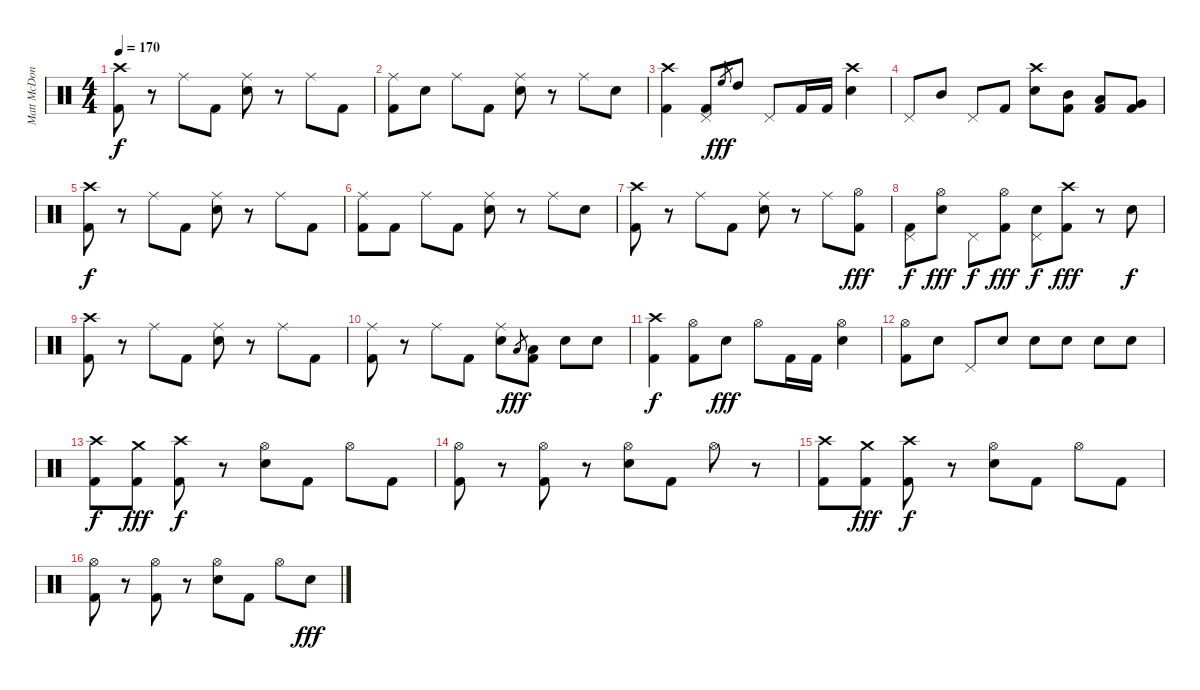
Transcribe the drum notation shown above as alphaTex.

\track ("Matt McDonough" "Matt McDon") {instrument percussion}
\staff {score}
\articulation defaults
\ts (4 4)
\tempo 170
\clef neutral
\ks c
("Crash high (hit)" "Kick (hit) 2").8{dy f} r.8 "Ride (middle)".8 "Kick (hit) 2".8 ("Ride (middle)" "Electric Snare (hit)").8 r.8 "Ride (middle)".8 "Kick (hit) 2".8 |
("Ride (middle)" "Kick (hit) 2").8 "Electric Snare (hit)".8 "Ride (middle)".8 "Kick (hit) 2".8 ("Ride (middle)" "Electric Snare (hit)").8 r.8 "Ride (middle)".8 "Electric Snare (hit)".8 |
("Crash high (hit)" "Kick (hit) 2").4 ("Pedal Hi-Hat (hit)" "Kick (hit) 2").8 "High Floor Tom (hit)".8{gr dy fff} "High Tom (hit)".8 "Pedal Hi-Hat (hit)".8 "Kick (hit) 2".16 "Kick (hit) 2".16 ("Crash high (hit)" "Electric Snare (hit)").4 |
"Pedal Hi-Hat (hit)".8 "Mid Tom (hit)".8 "Pedal Hi-Hat (hit)".8 "Kick (hit) 2".8 ("Crash high (hit)" "Electric Snare (hit)").8 ("Mid Tom (hit)" "Kick (hit) 2").8 ("Low Tom (hit)" "Kick (hit) 2").8 ("Very Low Tom (hit)" "Kick (hit) 2").8 |
("Crash high (hit)" "Kick (hit) 2").8{dy f} r.8 "Ride (middle)".8 "Kick (hit) 2".8 ("Ride (middle)" "Electric Snare (hit)").8 r.8 "Ride (middle)".8 "Kick (hit) 2".8 |
("Ride (middle)" "Kick (hit) 2").8 "Kick (hit) 2".8 "Ride (middle)".8 "Kick (hit) 2".8 ("Ride (middle)" "Electric Snare (hit)").8 r.8 "Ride (middle)".8 "Electric Snare (hit)".8 |
("Crash high (hit)" "Kick (hit) 2").8 r.8 "Ride (middle)".8 "Kick (hit) 2".8 ("Ride (middle)" "Electric Snare (hit)").8 r.8 "Ride (middle)".8 ("Hi-Hat (open)" "Kick (hit) 2").8{dy fff} |
("Pedal Hi-Hat (hit)" "Kick (hit) 2").8{dy f} ("Hi-Hat (open)" "Electric Snare (hit)").8{dy fff} "Pedal Hi-Hat (hit)".8{dy f} ("Hi-Hat (open)" "Kick (hit) 2").8{dy fff} ("Pedal Hi-Hat (hit)" "Electric Snare (hit)").8{dy f} ("Crash high (hit)" "Kick (hit) 2").8{dy fff} r.8 "Electric Snare (hit)".8{dy f} |
("Crash high (hit)" "Kick (hit) 2").8 r.8 "Ride (middle)".8 "Kick (hit) 2".8 ("Ride (middle)" "Electric Snare (hit)").8 r.8 "Ride (middle)".8 "Kick (hit) 2".8 |
("Ride (middle)" "Kick (hit) 2").8 r.8 "Ride (middle)".8 "Kick (hit) 2".8 ("Ride (middle)" "Electric Snare (hit)").8 "Low Tom (hit)".8{gr dy fff} ("Low Floor Tom (hit)" "Kick (hit) 2").8 "Electric Snare (hit)".8 "Electric Snare (hit)".8 |
("Crash high (hit)" "Kick (hit) 2").4{dy f} ("Hi-Hat (open)" "Kick (hit) 2").8 "Electric Snare (hit)".8{dy fff} "Hi-Hat (open)".8 "Kick (hit) 2".16 "Kick (hit) 2".16 ("Hi-Hat (open)" "Electric Snare (hit)").4 |
("Hi-Hat (open)" "Kick (hit) 2").8 "Electric Snare (hit)".8 "Pedal Hi-Hat (hit)".8 "Electric Snare (hit)".8 "Electric Snare (hit)".8 "Electric Snare (hit)".8 "Electric Snare (hit)".8 "Electric Snare (hit)".8 |
("Crash high (hit)" "Kick (hit) 2").8{dy f} ("Crash medium (hit)" "Kick (hit) 2").8{dy fff} ("Crash high (hit)" "Kick (hit) 2").8{dy f} r.8 ("Hi-Hat (open)" "Electric Snare (hit)").8 "Kick (hit) 2".8 "Hi-Hat (open)".8 "Kick (hit) 2".8 |
("Hi-Hat (open)" "Kick (hit) 2").8 r.8 ("Hi-Hat (open)" "Kick (hit) 2").8 r.8 ("Hi-Hat (open)" "Electric Snare (hit)").8 "Kick (hit) 2".8 "Hi-Hat (open)".8 r.8 |
("Crash high (hit)" "Kick (hit) 2").8 ("Crash medium (hit)" "Kick (hit) 2").8{dy fff} ("Crash high (hit)" "Kick (hit) 2").8{dy f} r.8 ("Hi-Hat (open)" "Electric Snare (hit)").8 "Kick (hit) 2".8 "Hi-Hat (open)".8 "Kick (hit) 2".8 |
("Hi-Hat (open)" "Kick (hit) 2").8 r.8 ("Hi-Hat (open)" "Kick (hit) 2").8 r.8 ("Hi-Hat (open)" "Electric Snare (hit)").8 "Kick (hit) 2".8 "Hi-Hat (open)".8 "Electric Snare (hit)".8{dy fff}
